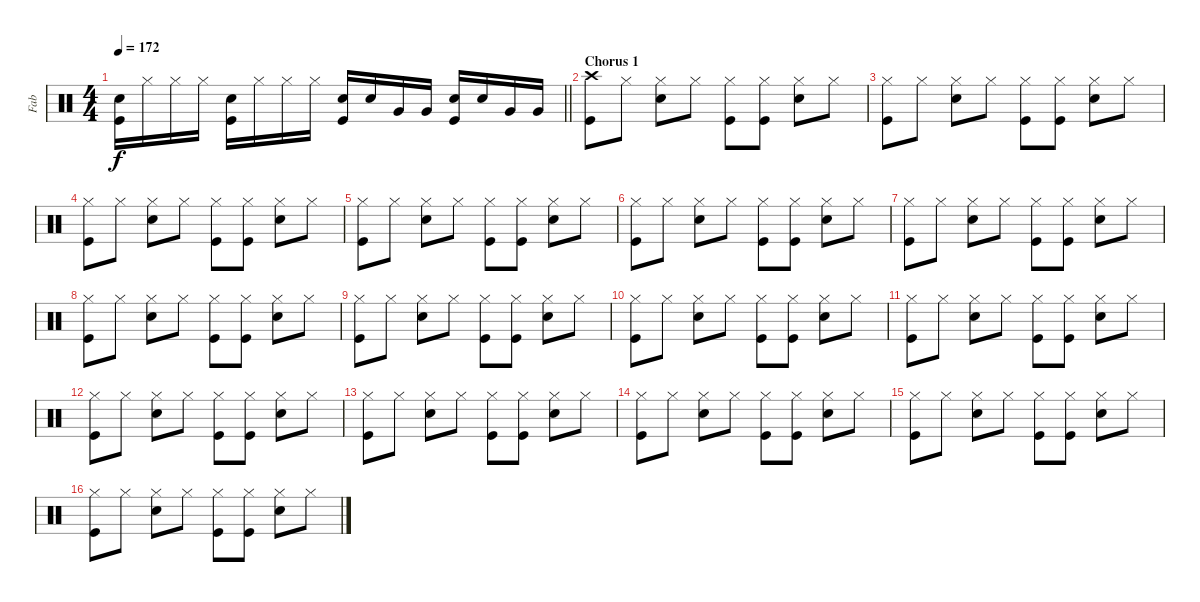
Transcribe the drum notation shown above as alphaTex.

\track ("Fab" "Fab") {instrument percussion}
\staff {score}
\articulation defaults
\ts (4 4)
\tempo 172
\clef neutral
\barLineRight lightlight
\ks c
("Snare (hit) 2" "Kick (hit)").16{dy f} "Hi-Hat (closed)".16 "Hi-Hat (closed)".16 "Hi-Hat (closed)".16 ("Snare (hit) 2" "Kick (hit)").16 "Hi-Hat (closed)".16 "Hi-Hat (closed)".16 "Hi-Hat (closed)".16 ("Snare (hit) 2" "Kick (hit)").16 "Snare (hit) 2".16 "Very Low Tom (hit)".16 "Very Low Tom (hit)".16 ("Snare (hit) 2" "Kick (hit)").16 "Snare (hit) 2".16 "Very Low Tom (hit)".16 "Very Low Tom (hit)".16 |
\section ("" "Chorus 1")
("Crash high (hit)" "Kick (hit)").8 "Hi-Hat (closed)".8 ("Hi-Hat (closed)" "Snare (hit) 2").8 "Hi-Hat (closed)".8 ("Hi-Hat (closed)" "Kick (hit)").8 ("Hi-Hat (closed)" "Kick (hit)").8 ("Hi-Hat (closed)" "Snare (hit) 2").8 "Hi-Hat (closed)".8 |
("Hi-Hat (closed)" "Kick (hit)").8 "Hi-Hat (closed)".8 ("Hi-Hat (closed)" "Snare (hit) 2").8 "Hi-Hat (closed)".8 ("Hi-Hat (closed)" "Kick (hit)").8 ("Hi-Hat (closed)" "Kick (hit)").8 ("Hi-Hat (closed)" "Snare (hit) 2").8 "Hi-Hat (closed)".8 |
("Hi-Hat (closed)" "Kick (hit)").8 "Hi-Hat (closed)".8 ("Hi-Hat (closed)" "Snare (hit) 2").8 "Hi-Hat (closed)".8 ("Hi-Hat (closed)" "Kick (hit)").8 ("Hi-Hat (closed)" "Kick (hit)").8 ("Hi-Hat (closed)" "Snare (hit) 2").8 "Hi-Hat (closed)".8 |
("Hi-Hat (closed)" "Kick (hit)").8 "Hi-Hat (closed)".8 ("Hi-Hat (closed)" "Snare (hit) 2").8 "Hi-Hat (closed)".8 ("Hi-Hat (closed)" "Kick (hit)").8 ("Hi-Hat (closed)" "Kick (hit)").8 ("Hi-Hat (closed)" "Snare (hit) 2").8 "Hi-Hat (closed)".8 |
("Hi-Hat (closed)" "Kick (hit)").8 "Hi-Hat (closed)".8 ("Hi-Hat (closed)" "Snare (hit) 2").8 "Hi-Hat (closed)".8 ("Hi-Hat (closed)" "Kick (hit)").8 ("Hi-Hat (closed)" "Kick (hit)").8 ("Hi-Hat (closed)" "Snare (hit) 2").8 "Hi-Hat (closed)".8 |
("Hi-Hat (closed)" "Kick (hit)").8 "Hi-Hat (closed)".8 ("Hi-Hat (closed)" "Snare (hit) 2").8 "Hi-Hat (closed)".8 ("Hi-Hat (closed)" "Kick (hit)").8 ("Hi-Hat (closed)" "Kick (hit)").8 ("Hi-Hat (closed)" "Snare (hit) 2").8 "Hi-Hat (closed)".8 |
("Hi-Hat (closed)" "Kick (hit)").8 "Hi-Hat (closed)".8 ("Hi-Hat (closed)" "Snare (hit) 2").8 "Hi-Hat (closed)".8 ("Hi-Hat (closed)" "Kick (hit)").8 ("Hi-Hat (closed)" "Kick (hit)").8 ("Hi-Hat (closed)" "Snare (hit) 2").8 "Hi-Hat (closed)".8 |
("Hi-Hat (closed)" "Kick (hit)").8 "Hi-Hat (closed)".8 ("Hi-Hat (closed)" "Snare (hit) 2").8 "Hi-Hat (closed)".8 ("Hi-Hat (closed)" "Kick (hit)").8 ("Hi-Hat (closed)" "Kick (hit)").8 ("Hi-Hat (closed)" "Snare (hit) 2").8 "Hi-Hat (closed)".8 |
("Hi-Hat (closed)" "Kick (hit)").8 "Hi-Hat (closed)".8 ("Hi-Hat (closed)" "Snare (hit) 2").8 "Hi-Hat (closed)".8 ("Hi-Hat (closed)" "Kick (hit)").8 ("Hi-Hat (closed)" "Kick (hit)").8 ("Hi-Hat (closed)" "Snare (hit) 2").8 "Hi-Hat (closed)".8 |
("Hi-Hat (closed)" "Kick (hit)").8 "Hi-Hat (closed)".8 ("Hi-Hat (closed)" "Snare (hit) 2").8 "Hi-Hat (closed)".8 ("Hi-Hat (closed)" "Kick (hit)").8 ("Hi-Hat (closed)" "Kick (hit)").8 ("Hi-Hat (closed)" "Snare (hit) 2").8 "Hi-Hat (closed)".8 |
("Hi-Hat (closed)" "Kick (hit)").8 "Hi-Hat (closed)".8 ("Hi-Hat (closed)" "Snare (hit) 2").8 "Hi-Hat (closed)".8 ("Hi-Hat (closed)" "Kick (hit)").8 ("Hi-Hat (closed)" "Kick (hit)").8 ("Hi-Hat (closed)" "Snare (hit) 2").8 "Hi-Hat (closed)".8 |
("Hi-Hat (closed)" "Kick (hit)").8 "Hi-Hat (closed)".8 ("Hi-Hat (closed)" "Snare (hit) 2").8 "Hi-Hat (closed)".8 ("Hi-Hat (closed)" "Kick (hit)").8 ("Hi-Hat (closed)" "Kick (hit)").8 ("Hi-Hat (closed)" "Snare (hit) 2").8 "Hi-Hat (closed)".8 |
("Hi-Hat (closed)" "Kick (hit)").8 "Hi-Hat (closed)".8 ("Hi-Hat (closed)" "Snare (hit) 2").8 "Hi-Hat (closed)".8 ("Hi-Hat (closed)" "Kick (hit)").8 ("Hi-Hat (closed)" "Kick (hit)").8 ("Hi-Hat (closed)" "Snare (hit) 2").8 "Hi-Hat (closed)".8 |
("Hi-Hat (closed)" "Kick (hit)").8 "Hi-Hat (closed)".8 ("Hi-Hat (closed)" "Snare (hit) 2").8 "Hi-Hat (closed)".8 ("Hi-Hat (closed)" "Kick (hit)").8 ("Hi-Hat (closed)" "Kick (hit)").8 ("Hi-Hat (closed)" "Snare (hit) 2").8 "Hi-Hat (closed)".8 |
("Hi-Hat (closed)" "Kick (hit)").8 "Hi-Hat (closed)".8 ("Hi-Hat (closed)" "Snare (hit) 2").8 "Hi-Hat (closed)".8 ("Hi-Hat (closed)" "Kick (hit)").8 ("Hi-Hat (closed)" "Kick (hit)").8 ("Hi-Hat (closed)" "Snare (hit) 2").8 "Hi-Hat (closed)".8
